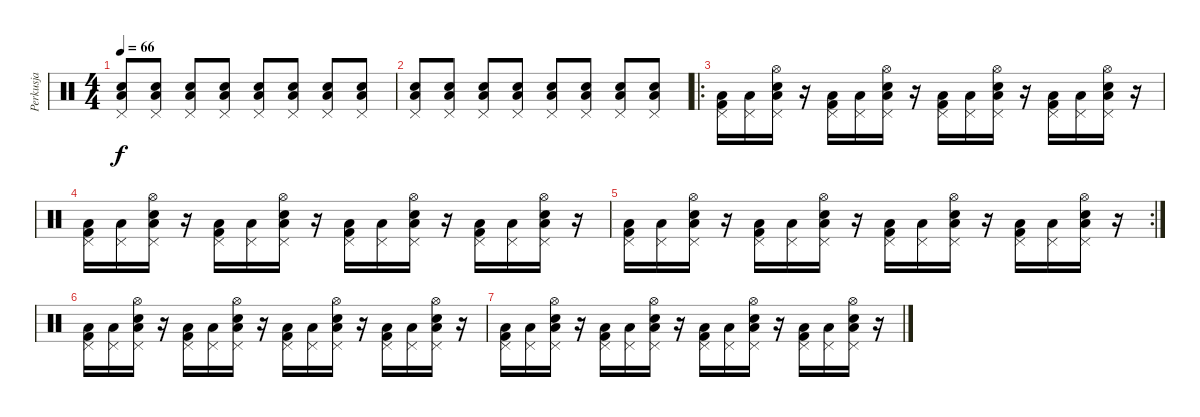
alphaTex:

\track ("Perkusja" "Perkusja") {instrument percussion}
\staff {score}
\articulation defaults
\ts (4 4)
\tempo 66
\clef neutral
\ks c
("Pedal Hi-Hat (hit)" "Low Floor Tom (hit)" "Snare (hit) 2").8{dy f} ("Pedal Hi-Hat (hit)" "Low Floor Tom (hit)" "Snare (hit) 2").8 ("Pedal Hi-Hat (hit)" "Low Floor Tom (hit)" "Snare (hit) 2").8 ("Pedal Hi-Hat (hit)" "Low Floor Tom (hit)" "Snare (hit) 2").8 ("Pedal Hi-Hat (hit)" "Low Floor Tom (hit)" "Snare (hit) 2").8 ("Pedal Hi-Hat (hit)" "Low Floor Tom (hit)" "Snare (hit) 2").8 ("Pedal Hi-Hat (hit)" "Low Floor Tom (hit)" "Snare (hit) 2").8 ("Pedal Hi-Hat (hit)" "Low Floor Tom (hit)" "Snare (hit) 2").8 |
("Pedal Hi-Hat (hit)" "Low Floor Tom (hit)" "Snare (hit) 2").8 ("Pedal Hi-Hat (hit)" "Low Floor Tom (hit)" "Snare (hit) 2").8 ("Pedal Hi-Hat (hit)" "Low Floor Tom (hit)" "Snare (hit) 2").8 ("Pedal Hi-Hat (hit)" "Low Floor Tom (hit)" "Snare (hit) 2").8 ("Pedal Hi-Hat (hit)" "Low Floor Tom (hit)" "Snare (hit) 2").8 ("Pedal Hi-Hat (hit)" "Low Floor Tom (hit)" "Snare (hit) 2").8 ("Pedal Hi-Hat (hit)" "Low Floor Tom (hit)" "Snare (hit) 2").8 ("Pedal Hi-Hat (hit)" "Low Floor Tom (hit)" "Snare (hit) 2").8 |
\ro
("Pedal Hi-Hat (hit)" "Low Floor Tom (hit)" "Kick (hit) 2").16 ("Pedal Hi-Hat (hit)" "Low Floor Tom (hit)").16 ("Pedal Hi-Hat (hit)" "Low Floor Tom (hit)" "Hi-Hat (open)" "Snare (hit) 2").16 r.16 ("Pedal Hi-Hat (hit)" "Low Floor Tom (hit)" "Kick (hit) 2").16 ("Pedal Hi-Hat (hit)" "Low Floor Tom (hit)").16 ("Pedal Hi-Hat (hit)" "Low Floor Tom (hit)" "Hi-Hat (open)" "Snare (hit) 2").16 r.16 ("Pedal Hi-Hat (hit)" "Low Floor Tom (hit)" "Kick (hit) 2").16 ("Pedal Hi-Hat (hit)" "Low Floor Tom (hit)").16 ("Pedal Hi-Hat (hit)" "Low Floor Tom (hit)" "Hi-Hat (open)" "Snare (hit) 2").16 r.16 ("Pedal Hi-Hat (hit)" "Low Floor Tom (hit)" "Kick (hit) 2").16 ("Pedal Hi-Hat (hit)" "Low Floor Tom (hit)").16 ("Pedal Hi-Hat (hit)" "Low Floor Tom (hit)" "Hi-Hat (open)" "Snare (hit) 2").16 r.16 |
("Pedal Hi-Hat (hit)" "Low Floor Tom (hit)" "Kick (hit) 2").16 ("Pedal Hi-Hat (hit)" "Low Floor Tom (hit)").16 ("Pedal Hi-Hat (hit)" "Low Floor Tom (hit)" "Hi-Hat (open)" "Snare (hit) 2").16 r.16 ("Pedal Hi-Hat (hit)" "Low Floor Tom (hit)" "Kick (hit) 2").16 ("Pedal Hi-Hat (hit)" "Low Floor Tom (hit)").16 ("Pedal Hi-Hat (hit)" "Low Floor Tom (hit)" "Hi-Hat (open)" "Snare (hit) 2").16 r.16 ("Pedal Hi-Hat (hit)" "Low Floor Tom (hit)" "Kick (hit) 2").16 ("Pedal Hi-Hat (hit)" "Low Floor Tom (hit)").16 ("Pedal Hi-Hat (hit)" "Low Floor Tom (hit)" "Hi-Hat (open)" "Snare (hit) 2").16 r.16 ("Pedal Hi-Hat (hit)" "Low Floor Tom (hit)" "Kick (hit) 2").16 ("Pedal Hi-Hat (hit)" "Low Floor Tom (hit)").16 ("Pedal Hi-Hat (hit)" "Low Floor Tom (hit)" "Hi-Hat (open)" "Snare (hit) 2").16 r.16 |
\rc 2
("Pedal Hi-Hat (hit)" "Low Floor Tom (hit)" "Kick (hit) 2").16 ("Pedal Hi-Hat (hit)" "Low Floor Tom (hit)").16 ("Pedal Hi-Hat (hit)" "Low Floor Tom (hit)" "Hi-Hat (open)" "Snare (hit) 2").16 r.16 ("Pedal Hi-Hat (hit)" "Low Floor Tom (hit)" "Kick (hit) 2").16 ("Pedal Hi-Hat (hit)" "Low Floor Tom (hit)").16 ("Pedal Hi-Hat (hit)" "Low Floor Tom (hit)" "Hi-Hat (open)" "Snare (hit) 2").16 r.16 ("Pedal Hi-Hat (hit)" "Low Floor Tom (hit)" "Kick (hit) 2").16 ("Pedal Hi-Hat (hit)" "Low Floor Tom (hit)").16 ("Pedal Hi-Hat (hit)" "Low Floor Tom (hit)" "Hi-Hat (open)" "Snare (hit) 2").16 r.16 ("Pedal Hi-Hat (hit)" "Low Floor Tom (hit)" "Kick (hit) 2").16 ("Pedal Hi-Hat (hit)" "Low Floor Tom (hit)").16 ("Pedal Hi-Hat (hit)" "Low Floor Tom (hit)" "Hi-Hat (open)" "Snare (hit) 2").16 r.16 |
("Pedal Hi-Hat (hit)" "Low Floor Tom (hit)" "Kick (hit) 2").16 ("Pedal Hi-Hat (hit)" "Low Floor Tom (hit)").16 ("Pedal Hi-Hat (hit)" "Low Floor Tom (hit)" "Hi-Hat (open)" "Snare (hit) 2").16 r.16 ("Pedal Hi-Hat (hit)" "Low Floor Tom (hit)" "Kick (hit) 2").16 ("Pedal Hi-Hat (hit)" "Low Floor Tom (hit)").16 ("Pedal Hi-Hat (hit)" "Low Floor Tom (hit)" "Hi-Hat (open)" "Snare (hit) 2").16 r.16 ("Pedal Hi-Hat (hit)" "Low Floor Tom (hit)" "Kick (hit) 2").16 ("Pedal Hi-Hat (hit)" "Low Floor Tom (hit)").16 ("Pedal Hi-Hat (hit)" "Low Floor Tom (hit)" "Hi-Hat (open)" "Snare (hit) 2").16 r.16 ("Pedal Hi-Hat (hit)" "Low Floor Tom (hit)" "Kick (hit) 2").16 ("Pedal Hi-Hat (hit)" "Low Floor Tom (hit)").16 ("Pedal Hi-Hat (hit)" "Low Floor Tom (hit)" "Hi-Hat (open)" "Snare (hit) 2").16 r.16 |
("Pedal Hi-Hat (hit)" "Low Floor Tom (hit)" "Kick (hit) 2").16 ("Pedal Hi-Hat (hit)" "Low Floor Tom (hit)").16 ("Pedal Hi-Hat (hit)" "Low Floor Tom (hit)" "Hi-Hat (open)" "Snare (hit) 2").16 r.16 ("Pedal Hi-Hat (hit)" "Low Floor Tom (hit)" "Kick (hit) 2").16 ("Pedal Hi-Hat (hit)" "Low Floor Tom (hit)").16 ("Pedal Hi-Hat (hit)" "Low Floor Tom (hit)" "Hi-Hat (open)" "Snare (hit) 2").16 r.16 ("Pedal Hi-Hat (hit)" "Low Floor Tom (hit)" "Kick (hit) 2").16 ("Pedal Hi-Hat (hit)" "Low Floor Tom (hit)").16 ("Pedal Hi-Hat (hit)" "Low Floor Tom (hit)" "Hi-Hat (open)" "Snare (hit) 2").16 r.16 ("Pedal Hi-Hat (hit)" "Low Floor Tom (hit)" "Kick (hit) 2").16 ("Pedal Hi-Hat (hit)" "Low Floor Tom (hit)").16 ("Pedal Hi-Hat (hit)" "Low Floor Tom (hit)" "Hi-Hat (open)" "Snare (hit) 2").16 r.16
